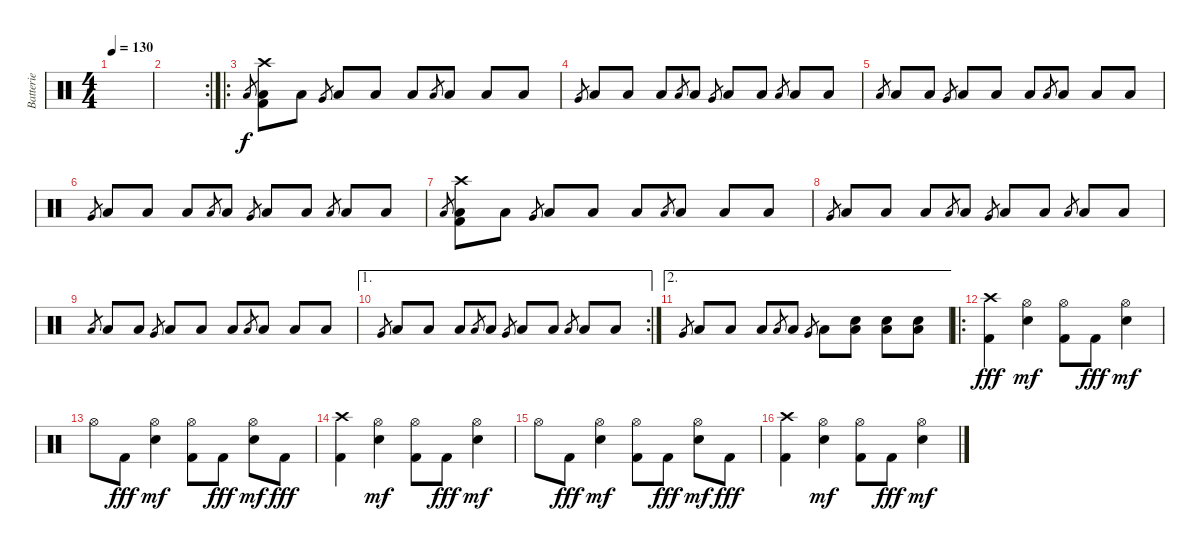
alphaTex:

\track ("Batterie" "Batterie") {instrument percussion}
\staff {score}
\articulation defaults
\ts (4 4)
\tempo 130
\clef neutral
\ks c
|
\rc 2
|
\ro "Low Floor Tom (hit)".8{gr dy f}
("Crash high (hit)" "Low Tom (hit)" "Kick (hit) 2").8 "Low Tom (hit)".8 "Very Low Tom (hit)".8{gr} "Low Tom (hit)".8 "Low Tom (hit)".8 "Low Tom (hit)".8 "Low Floor Tom (hit)".8{gr} "Low Tom (hit)".8 "Low Tom (hit)".8 "Low Tom (hit)".8 |
"Very Low Tom (hit)".8{gr} "Low Tom (hit)".8 "Low Tom (hit)".8 "Low Tom (hit)".8 "Low Floor Tom (hit)".8{gr} "Low Tom (hit)".8 "Very Low Tom (hit)".8{gr} "Low Tom (hit)".8 "Low Tom (hit)".8 "Low Floor Tom (hit)".8{gr} "Low Tom (hit)".8 "Low Tom (hit)".8 |
"Low Floor Tom (hit)".8{gr} "Low Tom (hit)".8 "Low Tom (hit)".8 "Very Low Tom (hit)".8{gr} "Low Tom (hit)".8 "Low Tom (hit)".8 "Low Tom (hit)".8 "Low Floor Tom (hit)".8{gr} "Low Tom (hit)".8 "Low Tom (hit)".8 "Low Tom (hit)".8 |
"Very Low Tom (hit)".8{gr} "Low Tom (hit)".8 "Low Tom (hit)".8 "Low Tom (hit)".8 "Low Floor Tom (hit)".8{gr} "Low Tom (hit)".8 "Very Low Tom (hit)".8{gr} "Low Tom (hit)".8 "Low Tom (hit)".8 "Low Floor Tom (hit)".8{gr} "Low Tom (hit)".8 "Low Tom (hit)".8 |
"Low Floor Tom (hit)".8{gr} ("Crash high (hit)" "Low Tom (hit)" "Kick (hit) 2").8 "Low Tom (hit)".8 "Very Low Tom (hit)".8{gr} "Low Tom (hit)".8 "Low Tom (hit)".8 "Low Tom (hit)".8 "Low Floor Tom (hit)".8{gr} "Low Tom (hit)".8 "Low Tom (hit)".8 "Low Tom (hit)".8 |
"Very Low Tom (hit)".8{gr} "Low Tom (hit)".8 "Low Tom (hit)".8 "Low Tom (hit)".8 "Low Floor Tom (hit)".8{gr} "Low Tom (hit)".8 "Very Low Tom (hit)".8{gr} "Low Tom (hit)".8 "Low Tom (hit)".8 "Low Floor Tom (hit)".8{gr} "Low Tom (hit)".8 "Low Tom (hit)".8 |
"Low Floor Tom (hit)".8{gr} "Low Tom (hit)".8 "Low Tom (hit)".8 "Very Low Tom (hit)".8{gr} "Low Tom (hit)".8 "Low Tom (hit)".8 "Low Tom (hit)".8 "Low Floor Tom (hit)".8{gr} "Low Tom (hit)".8 "Low Tom (hit)".8 "Low Tom (hit)".8 |
\ae 1
\rc 2 "Very Low Tom (hit)".8{gr} "Low Tom (hit)".8 "Low Tom (hit)".8 "Low Tom (hit)".8 "Low Floor Tom (hit)".8{gr} "Low Tom (hit)".8 "Very Low Tom (hit)".8{gr} "Low Tom (hit)".8 "Low Tom (hit)".8 "Low Floor Tom (hit)".8{gr} "Low Tom (hit)".8 "Low Tom (hit)".8
|
\ae 2 "Very Low Tom (hit)".8{gr} "Low Tom (hit)".8 "Low Tom (hit)".8 "Low Tom (hit)".8 "Low Floor Tom (hit)".8{gr} "Low Tom (hit)".8 "Very Low Tom (hit)".8{gr} "Low Tom (hit)".8
("Snare (hit) 2" "Low Tom (hit)").8 ("Snare (hit) 2" "Low Tom (hit)").8 ("Snare (hit) 2" "Low Tom (hit)").8 |
\ro
("Crash high (hit)" "Kick (hit) 2").4{dy fff} ("Snare (hit) 2" "Hi-Hat (open)").4{dy mf} ("Kick (hit) 2" "Hi-Hat (open)").8 "Kick (hit) 2".8{dy fff} ("Snare (hit) 2" "Hi-Hat (open)").4{dy mf} |
"Hi-Hat (open)".8 "Kick (hit) 2".8{dy fff} ("Snare (hit) 2" "Hi-Hat (open)").4{dy mf} ("Kick (hit) 2" "Hi-Hat (open)").8 "Kick (hit) 2".8{dy fff} ("Snare (hit) 2" "Hi-Hat (open)").8{dy mf} "Kick (hit) 2".8{dy fff} |
("Crash high (hit)" "Kick (hit) 2").4 ("Snare (hit) 2" "Hi-Hat (open)").4{dy mf} ("Kick (hit) 2" "Hi-Hat (open)").8 "Kick (hit) 2".8{dy fff} ("Snare (hit) 2" "Hi-Hat (open)").4{dy mf} |
"Hi-Hat (open)".8 "Kick (hit) 2".8{dy fff} ("Snare (hit) 2" "Hi-Hat (open)").4{dy mf} ("Kick (hit) 2" "Hi-Hat (open)").8 "Kick (hit) 2".8{dy fff} ("Snare (hit) 2" "Hi-Hat (open)").8{dy mf} "Kick (hit) 2".8{dy fff} |
("Crash high (hit)" "Kick (hit) 2").4 ("Snare (hit) 2" "Hi-Hat (open)").4{dy mf} ("Kick (hit) 2" "Hi-Hat (open)").8 "Kick (hit) 2".8{dy fff} ("Snare (hit) 2" "Hi-Hat (open)").4{dy mf}
